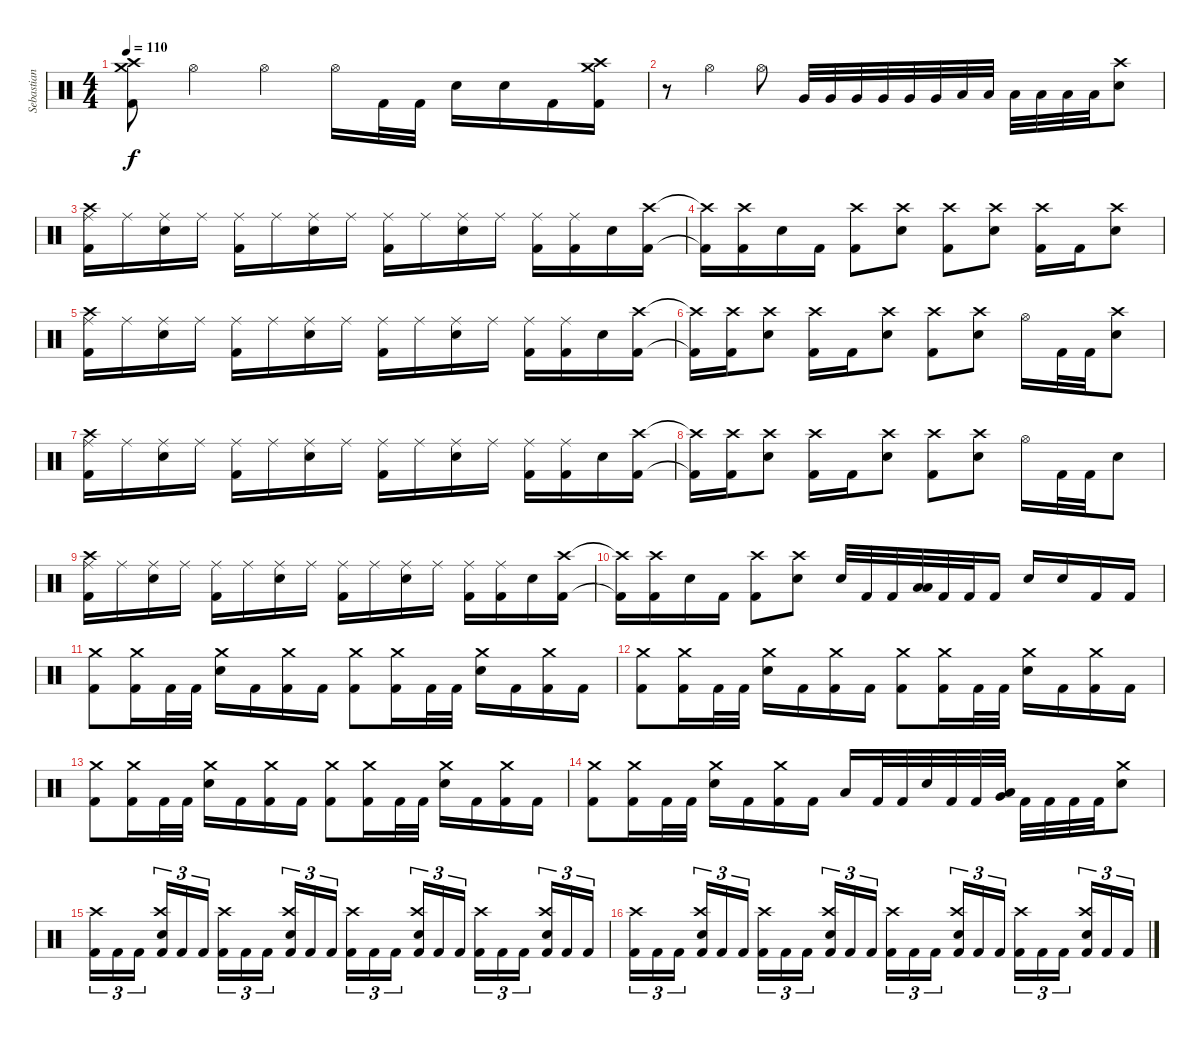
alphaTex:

\track ("Sebastian H." "Sebastian ") {instrument percussion}
\staff {score}
\articulation defaults
\ts (4 4)
\tempo 110
\clef neutral
\ks c
("Kick (hit) 2" "Crash medium (hit)" "Crash high (hit)").8{dy f} "Hi-Hat (open)".4 "Hi-Hat (open)".4 "Hi-Hat (open)".16 "Kick (hit) 2".32 "Kick (hit) 2".32 "Electric Snare (hit)".16 "Electric Snare (hit)".16 "Kick (hit) 2".16 ("Kick (hit) 2" "Crash medium (hit)" "Crash high (hit)").16 |
r.8 "Hi-Hat (open)".4 "Hi-Hat (open)".8 "Very Low Tom (hit)".32 "Very Low Tom (hit)".32 "Very Low Tom (hit)".32 "Very Low Tom (hit)".32 "Very Low Tom (hit)".32 "Very Low Tom (hit)".32 "Low Floor Tom (hit)".32 "Low Floor Tom (hit)".32 "Low Floor Tom (hit)".32 "Low Floor Tom (hit)".32 "Low Floor Tom (hit)".32 "Low Floor Tom (hit)".32 ("Electric Snare (hit)" "Crash high (hit)").8 |
("Ride (middle)" "Kick (hit) 2" "Crash high (hit)").16 "Ride (middle)".16 ("Ride (middle)" "Electric Snare (hit)").16 "Ride (middle)".16 ("Ride (middle)" "Kick (hit) 2").16 "Ride (middle)".16 ("Ride (middle)" "Electric Snare (hit)").16 "Ride (middle)".16 ("Ride (middle)" "Kick (hit) 2").16 "Ride (middle)".16 ("Ride (middle)" "Electric Snare (hit)").16 "Ride (middle)".16 ("Ride (middle)" "Kick (hit) 2").16 ("Ride (middle)" "Kick (hit) 2").16 "Electric Snare (hit)".16 ("Crash high (hit)" "Kick (hit) 2").16 |
("Crash high (hit)"{t} "Kick (hit) 2"{t}).16 ("Crash high (hit)" "Kick (hit) 2").16 "Electric Snare (hit)".16 "Kick (hit) 2".16 ("Crash high (hit)" "Kick (hit) 2").8 ("Crash high (hit)" "Electric Snare (hit)").8 ("Crash high (hit)" "Kick (hit) 2").8 ("Crash high (hit)" "Electric Snare (hit)").8 ("Crash high (hit)" "Kick (hit) 2").16 "Kick (hit) 2".16 ("Crash high (hit)" "Electric Snare (hit)").8 |
("Ride (middle)" "Kick (hit) 2" "Crash high (hit)").16 "Ride (middle)".16 ("Ride (middle)" "Electric Snare (hit)").16 "Ride (middle)".16 ("Ride (middle)" "Kick (hit) 2").16 "Ride (middle)".16 ("Ride (middle)" "Electric Snare (hit)").16 "Ride (middle)".16 ("Ride (middle)" "Kick (hit) 2").16 "Ride (middle)".16 ("Ride (middle)" "Electric Snare (hit)").16 "Ride (middle)".16 ("Ride (middle)" "Kick (hit) 2").16 ("Ride (middle)" "Kick (hit) 2").16 "Electric Snare (hit)".16 ("Crash high (hit)" "Kick (hit) 2").16 |
("Crash high (hit)"{t} "Kick (hit) 2"{t}).16 ("Crash high (hit)" "Kick (hit) 2").16 ("Crash high (hit)" "Electric Snare (hit)").8 ("Crash high (hit)" "Kick (hit) 2").16 "Kick (hit) 2".16 ("Crash high (hit)" "Electric Snare (hit)").8 ("Crash high (hit)" "Kick (hit) 2").8 ("Crash high (hit)" "Electric Snare (hit)").8 "Hi-Hat (open)".16 "Kick (hit) 2".32 "Kick (hit) 2".32 ("Crash high (hit)" "Electric Snare (hit)").8 |
("Ride (middle)" "Kick (hit) 2" "Crash high (hit)").16 "Ride (middle)".16 ("Ride (middle)" "Electric Snare (hit)").16 "Ride (middle)".16 ("Ride (middle)" "Kick (hit) 2").16 "Ride (middle)".16 ("Ride (middle)" "Electric Snare (hit)").16 "Ride (middle)".16 ("Ride (middle)" "Kick (hit) 2").16 "Ride (middle)".16 ("Ride (middle)" "Electric Snare (hit)").16 "Ride (middle)".16 ("Ride (middle)" "Kick (hit) 2").16 ("Ride (middle)" "Kick (hit) 2").16 "Electric Snare (hit)".16 ("Crash high (hit)" "Kick (hit) 2").16 |
("Crash high (hit)"{t} "Kick (hit) 2"{t}).16 ("Crash high (hit)" "Kick (hit) 2").16 ("Crash high (hit)" "Electric Snare (hit)").8 ("Crash high (hit)" "Kick (hit) 2").16 "Kick (hit) 2".16 ("Crash high (hit)" "Electric Snare (hit)").8 ("Crash high (hit)" "Kick (hit) 2").8 ("Crash high (hit)" "Electric Snare (hit)").8 "Hi-Hat (open)".16 "Kick (hit) 2".32 "Kick (hit) 2".32 "Electric Snare (hit)".8 |
("Ride (middle)" "Kick (hit) 2" "Crash high (hit)").16 "Ride (middle)".16 ("Ride (middle)" "Electric Snare (hit)").16 "Ride (middle)".16 ("Ride (middle)" "Kick (hit) 2").16 "Ride (middle)".16 ("Ride (middle)" "Electric Snare (hit)").16 "Ride (middle)".16 ("Ride (middle)" "Kick (hit) 2").16 "Ride (middle)".16 ("Ride (middle)" "Electric Snare (hit)").16 "Ride (middle)".16 ("Ride (middle)" "Kick (hit) 2").16 ("Ride (middle)" "Kick (hit) 2").16 "Electric Snare (hit)".16 ("Crash high (hit)" "Kick (hit) 2").16 |
("Crash high (hit)"{t} "Kick (hit) 2"{t}).16 ("Crash high (hit)" "Kick (hit) 2").16 "Electric Snare (hit)".16 "Kick (hit) 2".16 ("Crash high (hit)" "Kick (hit) 2").8 ("Crash high (hit)" "Electric Snare (hit)").8 "Electric Snare (hit)".32 "Kick (hit) 2".32 "Kick (hit) 2".32 ("Low Floor Tom (hit)" "Low Tom (hit)").32 "Kick (hit) 2".32 "Kick (hit) 2".32 "Kick (hit) 2".16 "Electric Snare (hit)".16 "Electric Snare (hit)".16 "Kick (hit) 2".16 "Kick (hit) 2".16 |
("Crash medium (hit)" "Kick (hit) 2").8 ("Crash medium (hit)" "Kick (hit) 2").16 "Kick (hit) 2".32 "Kick (hit) 2".32 ("Crash medium (hit)" "Electric Snare (hit)").16 "Kick (hit) 2".16 ("Crash medium (hit)" "Kick (hit) 2").16 "Kick (hit) 2".16 ("Crash medium (hit)" "Kick (hit) 2").8 ("Crash medium (hit)" "Kick (hit) 2").16 "Kick (hit) 2".32 "Kick (hit) 2".32 ("Crash medium (hit)" "Electric Snare (hit)").16 "Kick (hit) 2".16 ("Crash medium (hit)" "Kick (hit) 2").16 "Kick (hit) 2".16 |
("Crash medium (hit)" "Kick (hit) 2").8 ("Crash medium (hit)" "Kick (hit) 2").16 "Kick (hit) 2".32 "Kick (hit) 2".32 ("Crash medium (hit)" "Electric Snare (hit)").16 "Kick (hit) 2".16 ("Crash medium (hit)" "Kick (hit) 2").16 "Kick (hit) 2".16 ("Crash medium (hit)" "Kick (hit) 2").8 ("Crash medium (hit)" "Kick (hit) 2").16 "Kick (hit) 2".32 "Kick (hit) 2".32 ("Crash medium (hit)" "Electric Snare (hit)").16 "Kick (hit) 2".16 ("Crash medium (hit)" "Kick (hit) 2").16 "Kick (hit) 2".16 |
("Crash medium (hit)" "Kick (hit) 2").8 ("Crash medium (hit)" "Kick (hit) 2").16 "Kick (hit) 2".32 "Kick (hit) 2".32 ("Crash medium (hit)" "Electric Snare (hit)").16 "Kick (hit) 2".16 ("Crash medium (hit)" "Kick (hit) 2").16 "Kick (hit) 2".16 ("Crash medium (hit)" "Kick (hit) 2").8 ("Crash medium (hit)" "Kick (hit) 2").16 "Kick (hit) 2".32 "Kick (hit) 2".32 ("Crash medium (hit)" "Electric Snare (hit)").16 "Kick (hit) 2".16 ("Crash medium (hit)" "Kick (hit) 2").16 "Kick (hit) 2".16 |
("Crash medium (hit)" "Kick (hit) 2").8 ("Crash medium (hit)" "Kick (hit) 2").16 "Kick (hit) 2".32 "Kick (hit) 2".32 ("Crash medium (hit)" "Electric Snare (hit)").16 "Kick (hit) 2".16 ("Crash medium (hit)" "Kick (hit) 2").16 "Kick (hit) 2".16 "Low Tom (hit)".16 "Kick (hit) 2".32 "Kick (hit) 2".32 "Electric Snare (hit)".32 "Kick (hit) 2".32 "Kick (hit) 2".32 ("Very Low Tom (hit)" "Low Floor Tom (hit)").32 "Kick (hit) 2".32 "Kick (hit) 2".32 "Kick (hit) 2".32 "Kick (hit) 2".32 ("Crash medium (hit)" "Electric Snare (hit)").8 |
("Crash high (hit)" "Kick (hit) 2").16{tu (3 2)} "Kick (hit) 2".16{tu (3 2)} "Kick (hit) 2".16{tu (3 2) beam splitsecondary} ("Crash high (hit)" "Electric Snare (hit)" "Kick (hit) 2").16{tu (3 2)} "Kick (hit) 2".16{tu (3 2)} "Kick (hit) 2".16{tu (3 2)} ("Crash high (hit)" "Kick (hit) 2").16{tu (3 2)} "Kick (hit) 2".16{tu (3 2)} "Kick (hit) 2".16{tu (3 2) beam splitsecondary} ("Electric Snare (hit)" "Crash high (hit)" "Kick (hit) 2").16{tu (3 2)} "Kick (hit) 2".16{tu (3 2)} "Kick (hit) 2".16{tu (3 2)} ("Crash high (hit)" "Kick (hit) 2").16{tu (3 2)} "Kick (hit) 2".16{tu (3 2)} "Kick (hit) 2".16{tu (3 2) beam splitsecondary} ("Electric Snare (hit)" "Crash high (hit)" "Kick (hit) 2").16{tu (3 2)} "Kick (hit) 2".16{tu (3 2)} "Kick (hit) 2".16{tu (3 2)} ("Crash high (hit)" "Kick (hit) 2").16{tu (3 2)} "Kick (hit) 2".16{tu (3 2)} "Kick (hit) 2".16{tu (3 2) beam splitsecondary} ("Electric Snare (hit)" "Crash high (hit)" "Kick (hit) 2").16{tu (3 2)} "Kick (hit) 2".16{tu (3 2)} "Kick (hit) 2".16{tu (3 2)} |
("Crash high (hit)" "Kick (hit) 2").16{tu (3 2)} "Kick (hit) 2".16{tu (3 2)} "Kick (hit) 2".16{tu (3 2) beam splitsecondary} ("Crash high (hit)" "Electric Snare (hit)" "Kick (hit) 2").16{tu (3 2)} "Kick (hit) 2".16{tu (3 2)} "Kick (hit) 2".16{tu (3 2)} ("Crash high (hit)" "Kick (hit) 2").16{tu (3 2)} "Kick (hit) 2".16{tu (3 2)} "Kick (hit) 2".16{tu (3 2) beam splitsecondary} ("Electric Snare (hit)" "Crash high (hit)" "Kick (hit) 2").16{tu (3 2)} "Kick (hit) 2".16{tu (3 2)} "Kick (hit) 2".16{tu (3 2)} ("Crash high (hit)" "Kick (hit) 2").16{tu (3 2)} "Kick (hit) 2".16{tu (3 2)} "Kick (hit) 2".16{tu (3 2) beam splitsecondary} ("Electric Snare (hit)" "Crash high (hit)" "Kick (hit) 2").16{tu (3 2)} "Kick (hit) 2".16{tu (3 2)} "Kick (hit) 2".16{tu (3 2)} ("Crash high (hit)" "Kick (hit) 2").16{tu (3 2)} "Kick (hit) 2".16{tu (3 2)} "Kick (hit) 2".16{tu (3 2) beam splitsecondary} ("Electric Snare (hit)" "Crash high (hit)" "Kick (hit) 2").16{tu (3 2)} "Kick (hit) 2".16{tu (3 2)} "Kick (hit) 2".16{tu (3 2)}
